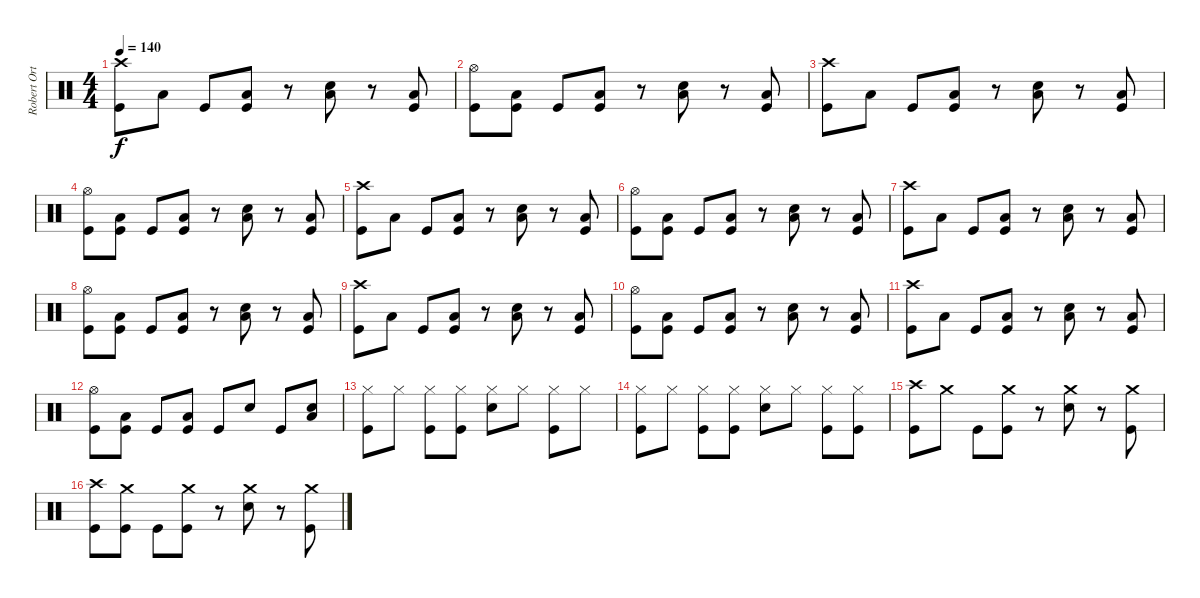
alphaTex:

\track ("Robert Ortiz" "Robert Ort") {instrument percussion}
\staff {score}
\articulation defaults
\ts (4 4)
\tempo 140
\clef neutral
\ks c
("Crash high (hit)" "Kick (hit)").8{dy f} "Low Floor Tom (hit)".8 "Kick (hit)".8 ("Low Floor Tom (hit)" "Kick (hit)").8 r.8 ("Low Floor Tom (hit)" "Snare (hit) 2").8 r.8 ("Low Floor Tom (hit)" "Kick (hit)").8 |
("Hi-Hat (open)" "Kick (hit)").8 ("Low Floor Tom (hit)" "Kick (hit)").8 "Kick (hit)".8 ("Low Floor Tom (hit)" "Kick (hit)").8 r.8 ("Low Floor Tom (hit)" "Snare (hit) 2").8 r.8 ("Low Floor Tom (hit)" "Kick (hit)").8 |
("Crash high (hit)" "Kick (hit)").8 "Low Floor Tom (hit)".8 "Kick (hit)".8 ("Low Floor Tom (hit)" "Kick (hit)").8 r.8 ("Low Floor Tom (hit)" "Snare (hit) 2").8 r.8 ("Low Floor Tom (hit)" "Kick (hit)").8 |
("Hi-Hat (open)" "Kick (hit)").8 ("Low Floor Tom (hit)" "Kick (hit)").8 "Kick (hit)".8 ("Low Floor Tom (hit)" "Kick (hit)").8 r.8 ("Low Floor Tom (hit)" "Snare (hit) 2").8 r.8 ("Low Floor Tom (hit)" "Kick (hit)").8 |
("Crash high (hit)" "Kick (hit)").8 "Low Floor Tom (hit)".8 "Kick (hit)".8 ("Low Floor Tom (hit)" "Kick (hit)").8 r.8 ("Low Floor Tom (hit)" "Snare (hit) 2").8 r.8 ("Low Floor Tom (hit)" "Kick (hit)").8 |
("Hi-Hat (open)" "Kick (hit)").8 ("Low Floor Tom (hit)" "Kick (hit)").8 "Kick (hit)".8 ("Low Floor Tom (hit)" "Kick (hit)").8 r.8 ("Low Floor Tom (hit)" "Snare (hit) 2").8 r.8 ("Low Floor Tom (hit)" "Kick (hit)").8 |
("Crash high (hit)" "Kick (hit)").8 "Low Floor Tom (hit)".8 "Kick (hit)".8 ("Low Floor Tom (hit)" "Kick (hit)").8 r.8 ("Low Floor Tom (hit)" "Snare (hit) 2").8 r.8 ("Low Floor Tom (hit)" "Kick (hit)").8 |
("Hi-Hat (open)" "Kick (hit)").8 ("Low Floor Tom (hit)" "Kick (hit)").8 "Kick (hit)".8 ("Low Floor Tom (hit)" "Kick (hit)").8 r.8 ("Low Floor Tom (hit)" "Snare (hit) 2").8 r.8 ("Low Floor Tom (hit)" "Kick (hit)").8 |
("Crash high (hit)" "Kick (hit)").8 "Low Floor Tom (hit)".8 "Kick (hit)".8 ("Low Floor Tom (hit)" "Kick (hit)").8 r.8 ("Low Floor Tom (hit)" "Snare (hit) 2").8 r.8 ("Low Floor Tom (hit)" "Kick (hit)").8 |
("Hi-Hat (open)" "Kick (hit)").8 ("Low Floor Tom (hit)" "Kick (hit)").8 "Kick (hit)".8 ("Low Floor Tom (hit)" "Kick (hit)").8 r.8 ("Low Floor Tom (hit)" "Snare (hit) 2").8 r.8 ("Low Floor Tom (hit)" "Kick (hit)").8 |
("Crash high (hit)" "Kick (hit)").8 "Low Floor Tom (hit)".8 "Kick (hit)".8 ("Low Floor Tom (hit)" "Kick (hit)").8 r.8 ("Low Floor Tom (hit)" "Snare (hit) 2").8 r.8 ("Low Floor Tom (hit)" "Kick (hit)").8 |
("Hi-Hat (open)" "Kick (hit)").8 ("Low Floor Tom (hit)" "Kick (hit)").8 "Kick (hit)".8 ("Low Floor Tom (hit)" "Kick (hit)").8 "Kick (hit)".8 "Snare (hit) 2".8 "Kick (hit)".8 ("Low Floor Tom (hit)" "Snare (hit) 2").8 |
("Hi-Hat (closed)" "Kick (hit)").8 "Hi-Hat (closed)".8 ("Hi-Hat (closed)" "Kick (hit)").8 ("Hi-Hat (closed)" "Kick (hit)").8 ("Hi-Hat (closed)" "Snare (hit) 2").8 "Hi-Hat (closed)".8 ("Hi-Hat (closed)" "Kick (hit)").8 "Hi-Hat (closed)".8 |
("Hi-Hat (closed)" "Kick (hit)").8 "Hi-Hat (closed)".8 ("Hi-Hat (closed)" "Kick (hit)").8 ("Hi-Hat (closed)" "Kick (hit)").8 ("Hi-Hat (closed)" "Snare (hit) 2").8 "Hi-Hat (closed)".8 ("Hi-Hat (closed)" "Kick (hit)").8 ("Hi-Hat (closed)" "Kick (hit)").8 |
("Crash high (hit)" "Kick (hit)").8 "Crash medium (hit)".8 "Kick (hit)".8 ("Crash medium (hit)" "Kick (hit)").8 r.8 ("Crash medium (hit)" "Snare (hit) 2").8 r.8 ("Crash medium (hit)" "Kick (hit)").8 |
("Crash high (hit)" "Kick (hit)").8 ("Crash medium (hit)" "Kick (hit)").8 "Kick (hit)".8 ("Crash medium (hit)" "Kick (hit)").8 r.8 ("Crash medium (hit)" "Snare (hit) 2").8 r.8 ("Crash medium (hit)" "Kick (hit)").8
